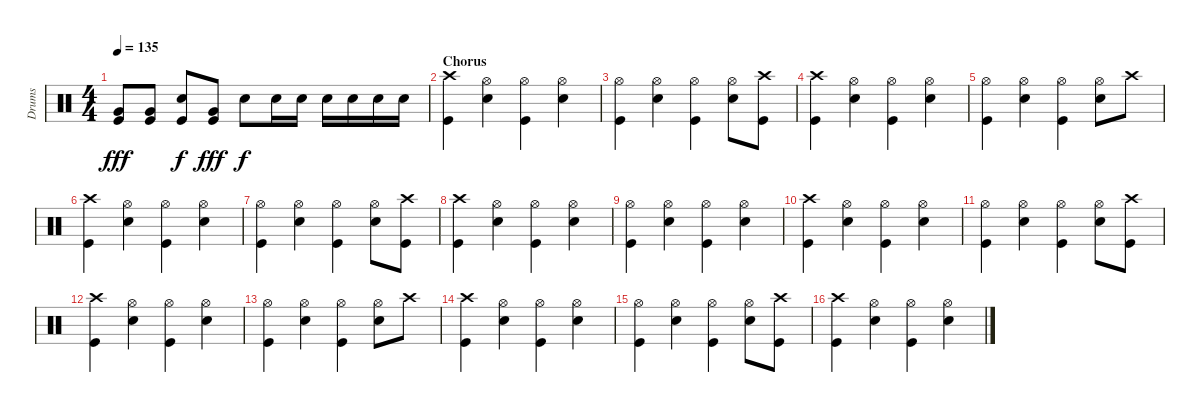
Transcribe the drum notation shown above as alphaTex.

\track ("Drums" "Drums") {instrument percussion}
\staff {score}
\articulation defaults
\ts (4 4)
\tempo 135
\clef neutral
\ks c
("Very Low Tom (hit)" "Kick (hit)").8{dy fff} ("Very Low Tom (hit)" "Kick (hit)").8 ("Snare (hit) 2" "Kick (hit)").8{dy f} ("Very Low Tom (hit)" "Kick (hit)").8{dy fff} "Snare (hit) 2".8{dy f} "Snare (hit) 2".16 "Snare (hit) 2".16 "Snare (hit) 2".16 "Snare (hit) 2".16 "Snare (hit) 2".16 "Snare (hit) 2".16 |
\section ("" "Chorus")
("Crash high (hit)" "Kick (hit)").4 ("Hi-Hat (open)" "Snare (hit) 2").4 ("Hi-Hat (open)" "Kick (hit)").4 ("Hi-Hat (open)" "Snare (hit) 2").4 |
("Hi-Hat (open)" "Kick (hit)").4 ("Hi-Hat (open)" "Snare (hit) 2").4 ("Hi-Hat (open)" "Kick (hit)").4 ("Hi-Hat (open)" "Snare (hit) 2").8 ("Crash high (hit)" "Kick (hit)").8 |
("Crash high (hit)" "Kick (hit)").4 ("Hi-Hat (open)" "Snare (hit) 2").4 ("Hi-Hat (open)" "Kick (hit)").4 ("Hi-Hat (open)" "Snare (hit) 2").4 |
("Hi-Hat (open)" "Kick (hit)").4 ("Hi-Hat (open)" "Snare (hit) 2").4 ("Hi-Hat (open)" "Kick (hit)").4 ("Hi-Hat (open)" "Snare (hit) 2").8 "Crash high (hit)".8 |
("Crash high (hit)" "Kick (hit)").4 ("Hi-Hat (open)" "Snare (hit) 2").4 ("Hi-Hat (open)" "Kick (hit)").4 ("Hi-Hat (open)" "Snare (hit) 2").4 |
("Hi-Hat (open)" "Kick (hit)").4 ("Hi-Hat (open)" "Snare (hit) 2").4 ("Hi-Hat (open)" "Kick (hit)").4 ("Hi-Hat (open)" "Snare (hit) 2").8 ("Crash high (hit)" "Kick (hit)").8 |
("Crash high (hit)" "Kick (hit)").4 ("Hi-Hat (open)" "Snare (hit) 2").4 ("Hi-Hat (open)" "Kick (hit)").4 ("Hi-Hat (open)" "Snare (hit) 2").4 |
("Hi-Hat (open)" "Kick (hit)").4 ("Hi-Hat (open)" "Snare (hit) 2").4 ("Hi-Hat (open)" "Kick (hit)").4 ("Hi-Hat (open)" "Snare (hit) 2").4 |
("Crash high (hit)" "Kick (hit)").4 ("Hi-Hat (open)" "Snare (hit) 2").4 ("Hi-Hat (open)" "Kick (hit)").4 ("Hi-Hat (open)" "Snare (hit) 2").4 |
("Hi-Hat (open)" "Kick (hit)").4 ("Hi-Hat (open)" "Snare (hit) 2").4 ("Hi-Hat (open)" "Kick (hit)").4 ("Hi-Hat (open)" "Snare (hit) 2").8 ("Crash high (hit)" "Kick (hit)").8 |
("Crash high (hit)" "Kick (hit)").4 ("Hi-Hat (open)" "Snare (hit) 2").4 ("Hi-Hat (open)" "Kick (hit)").4 ("Hi-Hat (open)" "Snare (hit) 2").4 |
("Hi-Hat (open)" "Kick (hit)").4 ("Hi-Hat (open)" "Snare (hit) 2").4 ("Hi-Hat (open)" "Kick (hit)").4 ("Hi-Hat (open)" "Snare (hit) 2").8 "Crash high (hit)".8 |
("Crash high (hit)" "Kick (hit)").4 ("Hi-Hat (open)" "Snare (hit) 2").4 ("Hi-Hat (open)" "Kick (hit)").4 ("Hi-Hat (open)" "Snare (hit) 2").4 |
("Hi-Hat (open)" "Kick (hit)").4 ("Hi-Hat (open)" "Snare (hit) 2").4 ("Hi-Hat (open)" "Kick (hit)").4 ("Hi-Hat (open)" "Snare (hit) 2").8 ("Crash high (hit)" "Kick (hit)").8 |
("Crash high (hit)" "Kick (hit)").4 ("Hi-Hat (open)" "Snare (hit) 2").4 ("Hi-Hat (open)" "Kick (hit)").4 ("Hi-Hat (open)" "Snare (hit) 2").4
